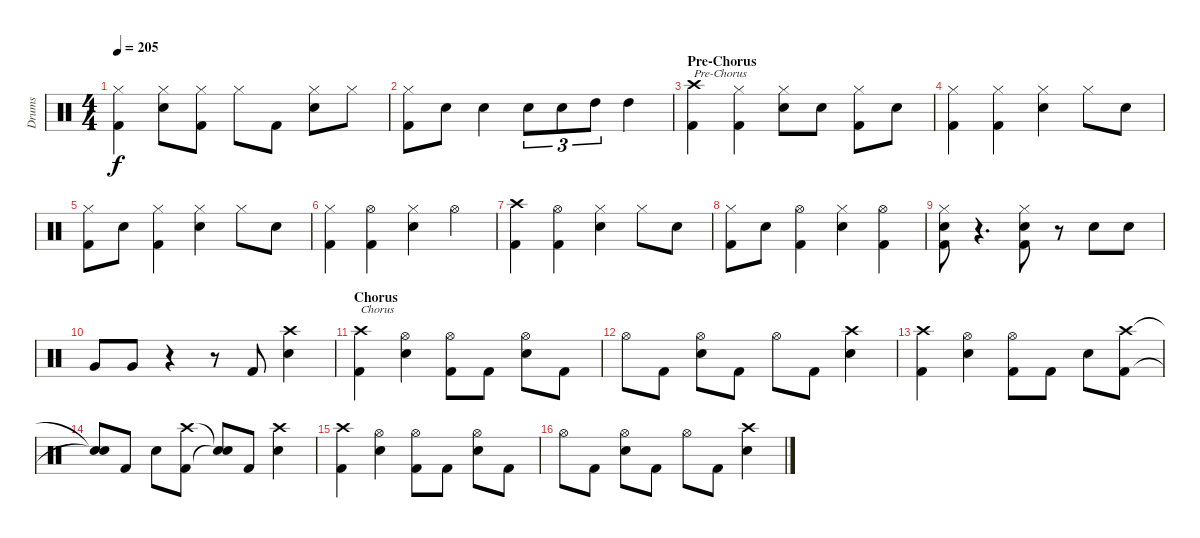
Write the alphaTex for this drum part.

\track ("Drums" "Drums") {instrument percussion}
\staff {score}
\articulation defaults
\ts (4 4)
\tempo 205
\clef neutral
\ks c
("Hi-Hat (closed)" "Kick (hit) 2").4{dy f} ("Hi-Hat (closed)" "Electric Snare (hit)").8 ("Hi-Hat (closed)" "Kick (hit) 2").8 "Hi-Hat (closed)".8 "Kick (hit) 2".8 ("Hi-Hat (closed)" "Electric Snare (hit)").8 "Hi-Hat (closed)".8 |
("Hi-Hat (closed)" "Kick (hit) 2").8 "Electric Snare (hit)".8 "Electric Snare (hit)".4 "Electric Snare (hit)".8{tu (3 2)} "Electric Snare (hit)".8{tu (3 2)} "High Tom (hit)".8{tu (3 2)} "High Tom (hit)".4 |
\section ("" "Pre-Chorus")
("Crash high (hit)" "Kick (hit) 2").4{txt "Pre-Chorus"} ("Hi-Hat (closed)" "Kick (hit) 2").4 ("Hi-Hat (closed)" "Electric Snare (hit)").8 "Electric Snare (hit)".8 ("Hi-Hat (closed)" "Kick (hit) 2").8 "Electric Snare (hit)".8 |
("Hi-Hat (closed)" "Kick (hit) 2").4 ("Hi-Hat (closed)" "Kick (hit) 2").4 ("Hi-Hat (closed)" "Electric Snare (hit)").4 "Hi-Hat (closed)".8 "Electric Snare (hit)".8 |
("Hi-Hat (closed)" "Kick (hit) 2").8 "Electric Snare (hit)".8 ("Hi-Hat (closed)" "Kick (hit) 2").4 ("Hi-Hat (closed)" "Electric Snare (hit)").4 "Hi-Hat (closed)".8 "Electric Snare (hit)".8 |
("Hi-Hat (closed)" "Kick (hit) 2").4 ("Hi-Hat (open)" "Kick (hit) 2").4 ("Hi-Hat (closed)" "Electric Snare (hit)").4 "Hi-Hat (open)".4 |
("Crash high (hit)" "Kick (hit) 2").4 ("Hi-Hat (open)" "Kick (hit) 2").4 ("Hi-Hat (closed)" "Electric Snare (hit)").4 "Hi-Hat (closed)".8 "Electric Snare (hit)".8 |
("Hi-Hat (closed)" "Kick (hit) 2").8 "Electric Snare (hit)".8 ("Hi-Hat (open)" "Kick (hit) 2").4 ("Hi-Hat (closed)" "Electric Snare (hit)").4 ("Hi-Hat (open)" "Kick (hit) 2").4 |
("Hi-Hat (closed)" "Electric Snare (hit)" "Kick (hit) 2").8 r.4{d} ("Hi-Hat (closed)" "Electric Snare (hit)" "Kick (hit) 2").8 r.8 "Electric Snare (hit)".8 "Electric Snare (hit)".8 |
"Very Low Tom (hit)".8 "Very Low Tom (hit)".8 r.4 r.8 "Kick (hit) 2".8 ("Crash high (hit)" "Electric Snare (hit)").4 |
\section ("" "Chorus")
("Crash high (hit)" "Kick (hit) 2").4{txt "Chorus"} ("Hi-Hat (open)" "Electric Snare (hit)").4 ("Hi-Hat (open)" "Kick (hit) 2").8 "Kick (hit) 2".8 ("Hi-Hat (open)" "Electric Snare (hit)").8 "Kick (hit) 2".8 |
"Hi-Hat (open)".8 "Kick (hit) 2".8 ("Hi-Hat (open)" "Electric Snare (hit)").8 "Kick (hit) 2".8 "Hi-Hat (open)".8 "Kick (hit) 2".8 ("Crash high (hit)" "Electric Snare (hit)").4 |
("Crash high (hit)" "Kick (hit) 2").4 ("Hi-Hat (open)" "Electric Snare (hit)").4 ("Hi-Hat (open)" "Kick (hit) 2").8 "Kick (hit) 2".8 "Electric Snare (hit)".8 ("Crash high (hit)" "Kick (hit) 2").8 |
("Snare (hit)"{t} "Snare (hit)"{t}).8 "Kick (hit) 2".8 "Electric Snare (hit)".8 ("Crash high (hit)" "Kick (hit) 2").8 ("Snare (hit)"{t} "Snare (hit)"{t}).8 "Kick (hit) 2".8 ("Crash high (hit)" "Electric Snare (hit)").4 |
("Crash high (hit)" "Kick (hit) 2").4 ("Hi-Hat (open)" "Electric Snare (hit)").4 ("Hi-Hat (open)" "Kick (hit) 2").8 "Kick (hit) 2".8 ("Hi-Hat (open)" "Electric Snare (hit)").8 "Kick (hit) 2".8 |
"Hi-Hat (open)".8 "Kick (hit) 2".8 ("Hi-Hat (open)" "Electric Snare (hit)").8 "Kick (hit) 2".8 "Hi-Hat (open)".8 "Kick (hit) 2".8 ("Crash high (hit)" "Electric Snare (hit)").4
